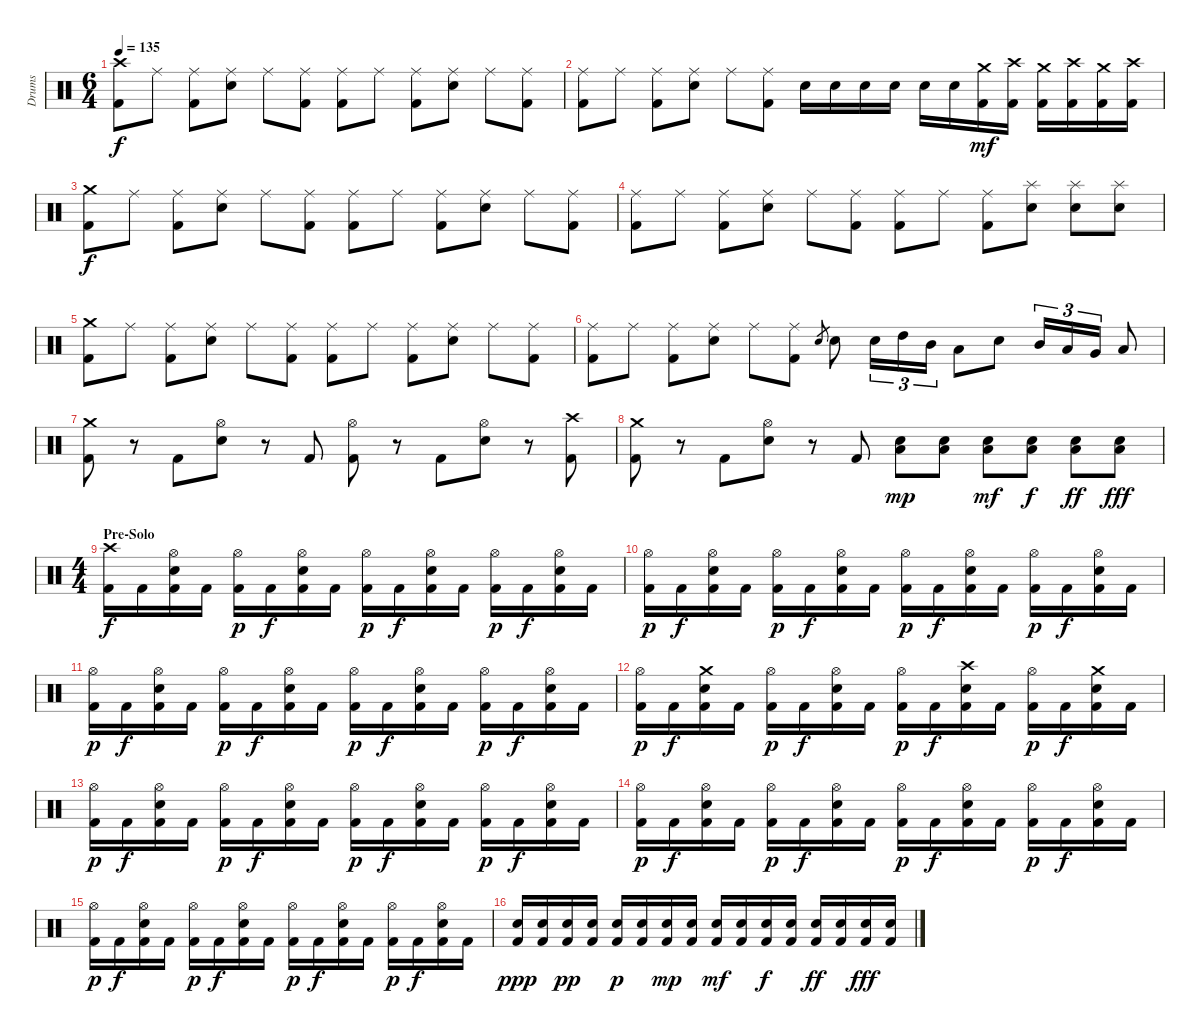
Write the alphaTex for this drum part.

\track ("Drums" "Drums") {instrument percussion}
\staff {score}
\articulation defaults
\ts (6 4)
\tempo 135
\clef neutral
\ks c
("Crash high (hit)" "Kick (hit) 2").8{dy f} "Ride (middle)".8 ("Ride (middle)" "Kick (hit) 2").8 ("Ride (middle)" "Snare (hit) 2").8 "Ride (middle)".8 ("Ride (middle)" "Kick (hit) 2").8 ("Ride (middle)" "Kick (hit) 2").8 "Ride (middle)".8 ("Ride (middle)" "Kick (hit) 2").8 ("Ride (middle)" "Snare (hit) 2").8 "Ride (middle)".8 ("Ride (middle)" "Kick (hit) 2").8 |
("Ride (middle)" "Kick (hit) 2").8 "Ride (middle)".8 ("Ride (middle)" "Kick (hit) 2").8 ("Ride (middle)" "Snare (hit) 2").8 "Ride (middle)".8 ("Ride (middle)" "Kick (hit) 2").8 "Snare (hit) 2".16 "Snare (hit) 2".16 "Snare (hit) 2".16 "Snare (hit) 2".16 "Snare (hit) 2".16 "Snare (hit) 2".16 ("Crash medium (hit)" "Kick (hit) 2").16{dy mf} ("Crash high (hit)" "Kick (hit) 2").16 ("Crash medium (hit)" "Kick (hit) 2").16 ("Crash high (hit)" "Kick (hit) 2").16 ("Crash medium (hit)" "Kick (hit) 2").16 ("Crash high (hit)" "Kick (hit) 2").16 |
("Crash medium (hit)" "Kick (hit) 2").8{dy f} "Ride (middle)".8 ("Ride (middle)" "Kick (hit) 2").8 ("Ride (middle)" "Snare (hit) 2").8 "Ride (middle)".8 ("Ride (middle)" "Kick (hit) 2").8 ("Ride (middle)" "Kick (hit) 2").8 "Ride (middle)".8 ("Ride (middle)" "Kick (hit) 2").8 ("Ride (middle)" "Snare (hit) 2").8 "Ride (middle)".8 ("Ride (middle)" "Kick (hit) 2").8 |
("Ride (middle)" "Kick (hit) 2").8 "Ride (middle)".8 ("Ride (middle)" "Kick (hit) 2").8 ("Ride (middle)" "Snare (hit) 2").8 "Ride (middle)".8 ("Ride (middle)" "Kick (hit) 2").8 ("Ride (middle)" "Kick (hit) 2").8 "Ride (middle)".8 ("Ride (middle)" "Kick (hit) 2").8 ("Splash (hit)" "Snare (hit) 2").8 ("Splash (hit)" "Snare (hit) 2").8 ("Splash (hit)" "Snare (hit) 2").8 |
("Crash medium (hit)" "Kick (hit) 2").8 "Ride (middle)".8 ("Ride (middle)" "Kick (hit) 2").8 ("Ride (middle)" "Snare (hit) 2").8 "Ride (middle)".8 ("Ride (middle)" "Kick (hit) 2").8 ("Ride (middle)" "Kick (hit) 2").8 "Ride (middle)".8 ("Ride (middle)" "Kick (hit) 2").8 ("Ride (middle)" "Snare (hit) 2").8 "Ride (middle)".8 ("Ride (middle)" "Kick (hit) 2").8 |
("Ride (middle)" "Kick (hit) 2").8 "Ride (middle)".8 ("Ride (middle)" "Kick (hit) 2").8 ("Ride (middle)" "Snare (hit) 2").8 "Ride (middle)".8 ("Ride (middle)" "Kick (hit) 2").8 "Snare (hit) 2".8{gr} "Snare (hit) 2".8 "Snare (hit) 2".16{tu (3 2)} "High Tom (hit)".16{tu (3 2)} "Mid Tom (hit)".16{tu (3 2)} "Low Tom (hit)".8 "Snare (hit) 2".8 "Mid Tom (hit)".16{tu (3 2)} "Low Tom (hit)".16{tu (3 2)} "Very Low Tom (hit)".16{tu (3 2)} "Low Floor Tom (hit)".8 |
("Crash medium (hit)" "Kick (hit) 2").8 r.8 "Kick (hit) 2".8 ("Hi-Hat (open)" "Snare (hit) 2").8 r.8 "Kick (hit) 2".8 ("Hi-Hat (open)" "Kick (hit) 2").8 r.8 "Kick (hit) 2".8 ("Hi-Hat (open)" "Snare (hit) 2").8 r.8 ("Crash high (hit)" "Kick (hit) 2").8 |
("Crash medium (hit)" "Kick (hit) 2").8 r.8 "Kick (hit) 2".8 ("Hi-Hat (open)" "Snare (hit) 2").8 r.8 "Kick (hit) 2".8 ("Snare (hit) 2" "Low Tom (hit)").8{dy mp} ("Snare (hit) 2" "Low Tom (hit)").8 ("Snare (hit) 2" "Low Tom (hit)").8{dy mf} ("Snare (hit) 2" "Low Tom (hit)").8{dy f} ("Snare (hit) 2" "Low Tom (hit)").8{dy ff} ("Snare (hit) 2" "Low Tom (hit)").8{dy fff} |
\ts (4 4)
\section ("" "Pre-Solo")
("Crash high (hit)" "Kick (hit) 2").16{dy f} "Kick (hit) 2".16 ("Hi-Hat (open)" "Snare (hit) 2" "Kick (hit) 2").16 "Kick (hit) 2".16 ("Hi-Hat (open)" "Kick (hit) 2").16{dy p} "Kick (hit) 2".16{dy f} ("Hi-Hat (open)" "Snare (hit) 2" "Kick (hit) 2").16 "Kick (hit) 2".16 ("Hi-Hat (open)" "Kick (hit) 2").16{dy p} "Kick (hit) 2".16{dy f} ("Hi-Hat (open)" "Snare (hit) 2" "Kick (hit) 2").16 "Kick (hit) 2".16 ("Hi-Hat (open)" "Kick (hit) 2").16{dy p} "Kick (hit) 2".16{dy f} ("Hi-Hat (open)" "Snare (hit) 2" "Kick (hit) 2").16 "Kick (hit) 2".16 |
("Hi-Hat (open)" "Kick (hit) 2").16{dy p} "Kick (hit) 2".16{dy f} ("Hi-Hat (open)" "Snare (hit) 2" "Kick (hit) 2").16 "Kick (hit) 2".16 ("Hi-Hat (open)" "Kick (hit) 2").16{dy p} "Kick (hit) 2".16{dy f} ("Hi-Hat (open)" "Snare (hit) 2" "Kick (hit) 2").16 "Kick (hit) 2".16 ("Hi-Hat (open)" "Kick (hit) 2").16{dy p} "Kick (hit) 2".16{dy f} ("Hi-Hat (open)" "Snare (hit) 2" "Kick (hit) 2").16 "Kick (hit) 2".16 ("Hi-Hat (open)" "Kick (hit) 2").16{dy p} "Kick (hit) 2".16{dy f} ("Hi-Hat (open)" "Snare (hit) 2" "Kick (hit) 2").16 "Kick (hit) 2".16 |
("Hi-Hat (open)" "Kick (hit) 2").16{dy p} "Kick (hit) 2".16{dy f} ("Hi-Hat (open)" "Snare (hit) 2" "Kick (hit) 2").16 "Kick (hit) 2".16 ("Hi-Hat (open)" "Kick (hit) 2").16{dy p} "Kick (hit) 2".16{dy f} ("Hi-Hat (open)" "Snare (hit) 2" "Kick (hit) 2").16 "Kick (hit) 2".16 ("Hi-Hat (open)" "Kick (hit) 2").16{dy p} "Kick (hit) 2".16{dy f} ("Hi-Hat (open)" "Snare (hit) 2" "Kick (hit) 2").16 "Kick (hit) 2".16 ("Hi-Hat (open)" "Kick (hit) 2").16{dy p} "Kick (hit) 2".16{dy f} ("Hi-Hat (open)" "Snare (hit) 2" "Kick (hit) 2").16 "Kick (hit) 2".16 |
("Hi-Hat (open)" "Kick (hit) 2").16{dy p} "Kick (hit) 2".16{dy f} ("Crash medium (hit)" "Snare (hit) 2" "Kick (hit) 2").16 "Kick (hit) 2".16 ("Hi-Hat (open)" "Kick (hit) 2").16{dy p} "Kick (hit) 2".16{dy f} ("Hi-Hat (open)" "Snare (hit) 2" "Kick (hit) 2").16 "Kick (hit) 2".16 ("Hi-Hat (open)" "Kick (hit) 2").16{dy p} "Kick (hit) 2".16{dy f} ("Crash high (hit)" "Snare (hit) 2" "Kick (hit) 2").16 "Kick (hit) 2".16 ("Hi-Hat (open)" "Kick (hit) 2").16{dy p} "Kick (hit) 2".16{dy f} ("Crash medium (hit)" "Snare (hit) 2" "Kick (hit) 2").16 "Kick (hit) 2".16 |
("Hi-Hat (open)" "Kick (hit) 2").16{dy p} "Kick (hit) 2".16{dy f} ("Hi-Hat (open)" "Snare (hit) 2" "Kick (hit) 2").16 "Kick (hit) 2".16 ("Hi-Hat (open)" "Kick (hit) 2").16{dy p} "Kick (hit) 2".16{dy f} ("Hi-Hat (open)" "Snare (hit) 2" "Kick (hit) 2").16 "Kick (hit) 2".16 ("Hi-Hat (open)" "Kick (hit) 2").16{dy p} "Kick (hit) 2".16{dy f} ("Hi-Hat (open)" "Snare (hit) 2" "Kick (hit) 2").16 "Kick (hit) 2".16 ("Hi-Hat (open)" "Kick (hit) 2").16{dy p} "Kick (hit) 2".16{dy f} ("Hi-Hat (open)" "Snare (hit) 2" "Kick (hit) 2").16 "Kick (hit) 2".16 |
("Hi-Hat (open)" "Kick (hit) 2").16{dy p} "Kick (hit) 2".16{dy f} ("Hi-Hat (open)" "Snare (hit) 2" "Kick (hit) 2").16 "Kick (hit) 2".16 ("Hi-Hat (open)" "Kick (hit) 2").16{dy p} "Kick (hit) 2".16{dy f} ("Hi-Hat (open)" "Snare (hit) 2" "Kick (hit) 2").16 "Kick (hit) 2".16 ("Hi-Hat (open)" "Kick (hit) 2").16{dy p} "Kick (hit) 2".16{dy f} ("Hi-Hat (open)" "Snare (hit) 2" "Kick (hit) 2").16 "Kick (hit) 2".16 ("Hi-Hat (open)" "Kick (hit) 2").16{dy p} "Kick (hit) 2".16{dy f} ("Hi-Hat (open)" "Snare (hit) 2" "Kick (hit) 2").16 "Kick (hit) 2".16 |
("Hi-Hat (open)" "Kick (hit) 2").16{dy p} "Kick (hit) 2".16{dy f} ("Hi-Hat (open)" "Snare (hit) 2" "Kick (hit) 2").16 "Kick (hit) 2".16 ("Hi-Hat (open)" "Kick (hit) 2").16{dy p} "Kick (hit) 2".16{dy f} ("Hi-Hat (open)" "Snare (hit) 2" "Kick (hit) 2").16 "Kick (hit) 2".16 ("Hi-Hat (open)" "Kick (hit) 2").16{dy p} "Kick (hit) 2".16{dy f} ("Hi-Hat (open)" "Snare (hit) 2" "Kick (hit) 2").16 "Kick (hit) 2".16 ("Hi-Hat (open)" "Kick (hit) 2").16{dy p} "Kick (hit) 2".16{dy f} ("Hi-Hat (open)" "Snare (hit) 2" "Kick (hit) 2").16 "Kick (hit) 2".16 |
("Snare (hit) 2" "Kick (hit) 2").16{dy ppp} ("Snare (hit) 2" "Kick (hit) 2").16 ("Snare (hit) 2" "Kick (hit) 2").16{dy pp} ("Snare (hit) 2" "Kick (hit) 2").16 ("Snare (hit) 2" "Kick (hit) 2").16{dy p} ("Snare (hit) 2" "Kick (hit) 2").16 ("Snare (hit) 2" "Kick (hit) 2").16{dy mp} ("Snare (hit) 2" "Kick (hit) 2").16 ("Snare (hit) 2" "Kick (hit) 2").16{dy mf} ("Snare (hit) 2" "Kick (hit) 2").16 ("Snare (hit) 2" "Kick (hit) 2").16{dy f} ("Snare (hit) 2" "Kick (hit) 2").16 ("Snare (hit) 2" "Kick (hit) 2").16{dy ff} ("Snare (hit) 2" "Kick (hit) 2").16 ("Snare (hit) 2" "Kick (hit) 2").16{dy fff} ("Snare (hit) 2" "Kick (hit) 2").16
